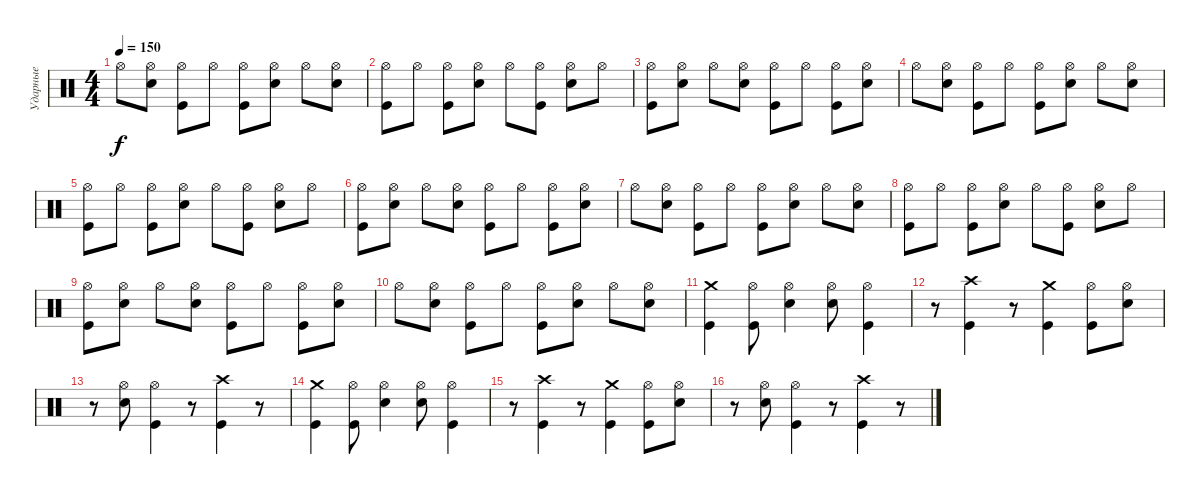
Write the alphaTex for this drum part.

\track ("Ударные" "Ударные") {instrument percussion}
\staff {score}
\articulation defaults
\ts (4 4)
\tempo 150
\clef neutral
\ks c "Hi-Hat (open)".8{dy f}
("Electric Snare (hit)" "Hi-Hat (open)").8 ("Kick (hit)" "Hi-Hat (open)").8 "Hi-Hat (open)".8 ("Kick (hit)" "Hi-Hat (open)").8 ("Electric Snare (hit)" "Hi-Hat (open)").8 "Hi-Hat (open)".8 ("Electric Snare (hit)" "Hi-Hat (open)").8 |
("Kick (hit)" "Hi-Hat (open)").8 "Hi-Hat (open)".8 ("Kick (hit)" "Hi-Hat (open)").8 ("Electric Snare (hit)" "Hi-Hat (open)").8 "Hi-Hat (open)".8 ("Kick (hit)" "Hi-Hat (open)").8 ("Electric Snare (hit)" "Hi-Hat (open)").8 "Hi-Hat (open)".8 |
("Kick (hit)" "Hi-Hat (open)").8 ("Electric Snare (hit)" "Hi-Hat (open)").8 "Hi-Hat (open)".8 ("Electric Snare (hit)" "Hi-Hat (open)").8 ("Kick (hit)" "Hi-Hat (open)").8 "Hi-Hat (open)".8 ("Kick (hit)" "Hi-Hat (open)").8 ("Electric Snare (hit)" "Hi-Hat (open)").8 |
"Hi-Hat (open)".8 ("Electric Snare (hit)" "Hi-Hat (open)").8 ("Kick (hit)" "Hi-Hat (open)").8 "Hi-Hat (open)".8 ("Kick (hit)" "Hi-Hat (open)").8 ("Electric Snare (hit)" "Hi-Hat (open)").8 "Hi-Hat (open)".8 ("Electric Snare (hit)" "Hi-Hat (open)").8 |
("Kick (hit)" "Hi-Hat (open)").8 "Hi-Hat (open)".8 ("Kick (hit)" "Hi-Hat (open)").8 ("Electric Snare (hit)" "Hi-Hat (open)").8 "Hi-Hat (open)".8 ("Kick (hit)" "Hi-Hat (open)").8 ("Electric Snare (hit)" "Hi-Hat (open)").8 "Hi-Hat (open)".8 |
("Kick (hit)" "Hi-Hat (open)").8 ("Electric Snare (hit)" "Hi-Hat (open)").8 "Hi-Hat (open)".8 ("Electric Snare (hit)" "Hi-Hat (open)").8 ("Kick (hit)" "Hi-Hat (open)").8 "Hi-Hat (open)".8 ("Kick (hit)" "Hi-Hat (open)").8 ("Electric Snare (hit)" "Hi-Hat (open)").8 |
"Hi-Hat (open)".8 ("Electric Snare (hit)" "Hi-Hat (open)").8 ("Kick (hit)" "Hi-Hat (open)").8 "Hi-Hat (open)".8 ("Kick (hit)" "Hi-Hat (open)").8 ("Electric Snare (hit)" "Hi-Hat (open)").8 "Hi-Hat (open)".8 ("Electric Snare (hit)" "Hi-Hat (open)").8 |
("Kick (hit)" "Hi-Hat (open)").8 "Hi-Hat (open)".8 ("Kick (hit)" "Hi-Hat (open)").8 ("Electric Snare (hit)" "Hi-Hat (open)").8 "Hi-Hat (open)".8 ("Kick (hit)" "Hi-Hat (open)").8 ("Electric Snare (hit)" "Hi-Hat (open)").8 "Hi-Hat (open)".8 |
("Kick (hit)" "Hi-Hat (open)").8 ("Electric Snare (hit)" "Hi-Hat (open)").8 "Hi-Hat (open)".8 ("Electric Snare (hit)" "Hi-Hat (open)").8 ("Kick (hit)" "Hi-Hat (open)").8 "Hi-Hat (open)".8 ("Kick (hit)" "Hi-Hat (open)").8 ("Electric Snare (hit)" "Hi-Hat (open)").8 |
"Hi-Hat (open)".8 ("Electric Snare (hit)" "Hi-Hat (open)").8 ("Kick (hit)" "Hi-Hat (open)").8 "Hi-Hat (open)".8 ("Kick (hit)" "Hi-Hat (open)").8 ("Electric Snare (hit)" "Hi-Hat (open)").8 "Hi-Hat (open)".8 ("Electric Snare (hit)" "Hi-Hat (open)").8 |
("Kick (hit)" "Crash medium (hit)").4 ("Kick (hit)" "Hi-Hat (open)").8 ("Electric Snare (hit)" "Hi-Hat (open)").4 ("Electric Snare (hit)" "Hi-Hat (open)").8 ("Kick (hit)" "Hi-Hat (open)").4 |
r.8 ("Kick (hit)" "Crash high (hit)").4 r.8 ("Kick (hit)" "Crash medium (hit)").4 ("Kick (hit)" "Hi-Hat (open)").8 ("Electric Snare (hit)" "Hi-Hat (open)").8 |
r.8 ("Electric Snare (hit)" "Hi-Hat (open)").8 ("Kick (hit)" "Hi-Hat (open)").4 r.8 ("Kick (hit)" "Crash high (hit)").4 r.8 |
("Kick (hit)" "Crash medium (hit)").4 ("Kick (hit)" "Hi-Hat (open)").8 ("Electric Snare (hit)" "Hi-Hat (open)").4 ("Electric Snare (hit)" "Hi-Hat (open)").8 ("Kick (hit)" "Hi-Hat (open)").4 |
r.8 ("Kick (hit)" "Crash high (hit)").4 r.8 ("Kick (hit)" "Crash medium (hit)").4 ("Kick (hit)" "Hi-Hat (open)").8 ("Electric Snare (hit)" "Hi-Hat (open)").8 |
r.8 ("Electric Snare (hit)" "Hi-Hat (open)").8 ("Kick (hit)" "Hi-Hat (open)").4 r.8 ("Kick (hit)" "Crash high (hit)").4 r.8
